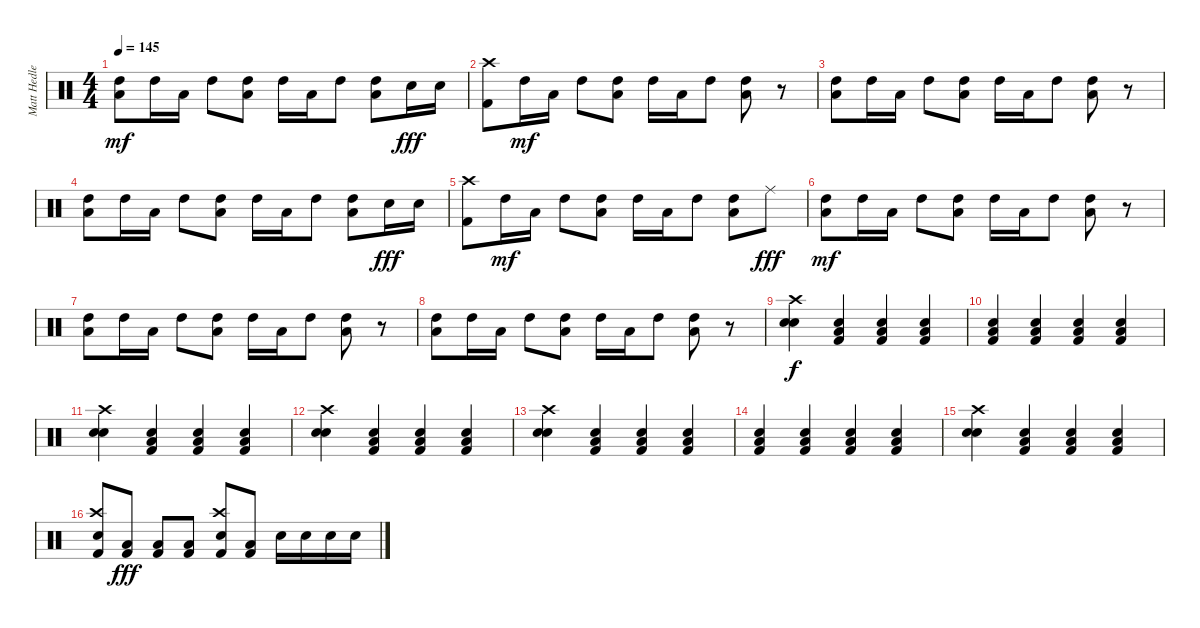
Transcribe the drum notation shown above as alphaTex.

\track ("Matt Hedlers" "Matt Hedle") {instrument percussion}
\staff {score}
\articulation defaults
\ts (4 4)
\tempo 145
\clef neutral
\ks c
("High Tom (hit)" "Low Tom (hit)").8{dy mf} "High Tom (hit)".16 "Low Tom (hit)".16 "High Tom (hit)".8 ("High Tom (hit)" "Low Tom (hit)").8 "High Tom (hit)".16 "Low Tom (hit)".16 "High Tom (hit)".8 ("High Tom (hit)" "Low Tom (hit)").8 "Snare (hit) 2".16{dy fff} "Snare (hit) 2".16 |
("Crash high (hit)" "Kick (hit) 2").8 "High Tom (hit)".16{dy mf} "Low Tom (hit)".16 "High Tom (hit)".8 ("High Tom (hit)" "Low Tom (hit)").8 "High Tom (hit)".16 "Low Tom (hit)".16 "High Tom (hit)".8 ("High Tom (hit)" "Low Tom (hit)").8 r.8 |
("High Tom (hit)" "Low Tom (hit)").8 "High Tom (hit)".16 "Low Tom (hit)".16 "High Tom (hit)".8 ("High Tom (hit)" "Low Tom (hit)").8 "High Tom (hit)".16 "Low Tom (hit)".16 "High Tom (hit)".8 ("High Tom (hit)" "Low Tom (hit)").8 r.8 |
("High Tom (hit)" "Low Tom (hit)").8 "High Tom (hit)".16 "Low Tom (hit)".16 "High Tom (hit)".8 ("High Tom (hit)" "Low Tom (hit)").8 "High Tom (hit)".16 "Low Tom (hit)".16 "High Tom (hit)".8 ("High Tom (hit)" "Low Tom (hit)").8 "Snare (hit) 2".16{dy fff} "Snare (hit) 2".16 |
("Crash high (hit)" "Kick (hit) 2").8 "High Tom (hit)".16{dy mf} "Low Tom (hit)".16 "High Tom (hit)".8 ("High Tom (hit)" "Low Tom (hit)").8 "High Tom (hit)".16 "Low Tom (hit)".16 "High Tom (hit)".8 ("High Tom (hit)" "Low Tom (hit)").8 "Ride (middle)".8{dy fff} |
("High Tom (hit)" "Low Tom (hit)").8{dy mf} "High Tom (hit)".16 "Low Tom (hit)".16 "High Tom (hit)".8 ("High Tom (hit)" "Low Tom (hit)").8 "High Tom (hit)".16 "Low Tom (hit)".16 "High Tom (hit)".8 ("High Tom (hit)" "Low Tom (hit)").8 r.8 |
("High Tom (hit)" "Low Tom (hit)").8 "High Tom (hit)".16 "Low Tom (hit)".16 "High Tom (hit)".8 ("High Tom (hit)" "Low Tom (hit)").8 "High Tom (hit)".16 "Low Tom (hit)".16 "High Tom (hit)".8 ("High Tom (hit)" "Low Tom (hit)").8 r.8 |
("High Tom (hit)" "Low Tom (hit)").8 "High Tom (hit)".16 "Low Tom (hit)".16 "High Tom (hit)".8 ("High Tom (hit)" "Low Tom (hit)").8 "High Tom (hit)".16 "Low Tom (hit)".16 "High Tom (hit)".8 ("High Tom (hit)" "Low Tom (hit)").8 r.8 |
("Crash high (hit)" "Snare (hit) 2" "Snare (hit) 2").4{dy f} ("Low Tom (hit)" "Snare (hit) 2" "Kick (hit) 2").4 ("Low Tom (hit)" "Snare (hit) 2" "Kick (hit) 2").4 ("Low Tom (hit)" "Snare (hit) 2" "Kick (hit) 2").4 |
("Low Tom (hit)" "Snare (hit) 2" "Kick (hit) 2").4 ("Low Tom (hit)" "Snare (hit) 2" "Kick (hit) 2").4 ("Low Tom (hit)" "Snare (hit) 2" "Kick (hit) 2").4 ("Low Tom (hit)" "Snare (hit) 2" "Kick (hit) 2").4 |
("Crash high (hit)" "Snare (hit) 2" "Snare (hit) 2").4 ("Low Tom (hit)" "Snare (hit) 2" "Kick (hit) 2").4 ("Low Tom (hit)" "Snare (hit) 2" "Kick (hit) 2").4 ("Low Tom (hit)" "Snare (hit) 2" "Kick (hit) 2").4 |
("Crash high (hit)" "Snare (hit) 2" "Snare (hit) 2").4 ("Low Tom (hit)" "Snare (hit) 2" "Kick (hit) 2").4 ("Low Tom (hit)" "Snare (hit) 2" "Kick (hit) 2").4 ("Low Tom (hit)" "Snare (hit) 2" "Kick (hit) 2").4 |
("Crash high (hit)" "Snare (hit) 2" "Snare (hit) 2").4 ("Low Tom (hit)" "Snare (hit) 2" "Kick (hit) 2").4 ("Low Tom (hit)" "Snare (hit) 2" "Kick (hit) 2").4 ("Low Tom (hit)" "Snare (hit) 2" "Kick (hit) 2").4 |
("Low Tom (hit)" "Snare (hit) 2" "Kick (hit) 2").4 ("Low Tom (hit)" "Snare (hit) 2" "Kick (hit) 2").4 ("Low Tom (hit)" "Snare (hit) 2" "Kick (hit) 2").4 ("Low Tom (hit)" "Snare (hit) 2" "Kick (hit) 2").4 |
("Crash high (hit)" "Snare (hit) 2" "Snare (hit) 2").4 ("Low Tom (hit)" "Snare (hit) 2" "Kick (hit) 2").4 ("Low Tom (hit)" "Snare (hit) 2" "Kick (hit) 2").4 ("Low Tom (hit)" "Snare (hit) 2" "Kick (hit) 2").4 |
("Crash high (hit)" "Snare (hit) 2" "Kick (hit) 2").8 ("Low Tom (hit)" "Kick (hit) 2").8{dy fff} ("Low Tom (hit)" "Kick (hit) 2").8 ("Low Tom (hit)" "Kick (hit) 2").8 ("Crash high (hit)" "Snare (hit) 2" "Kick (hit) 2").8 ("Low Tom (hit)" "Kick (hit) 2").8 "Snare (hit) 2".16 "Snare (hit) 2".16 "Snare (hit) 2".16 "Snare (hit) 2".16
